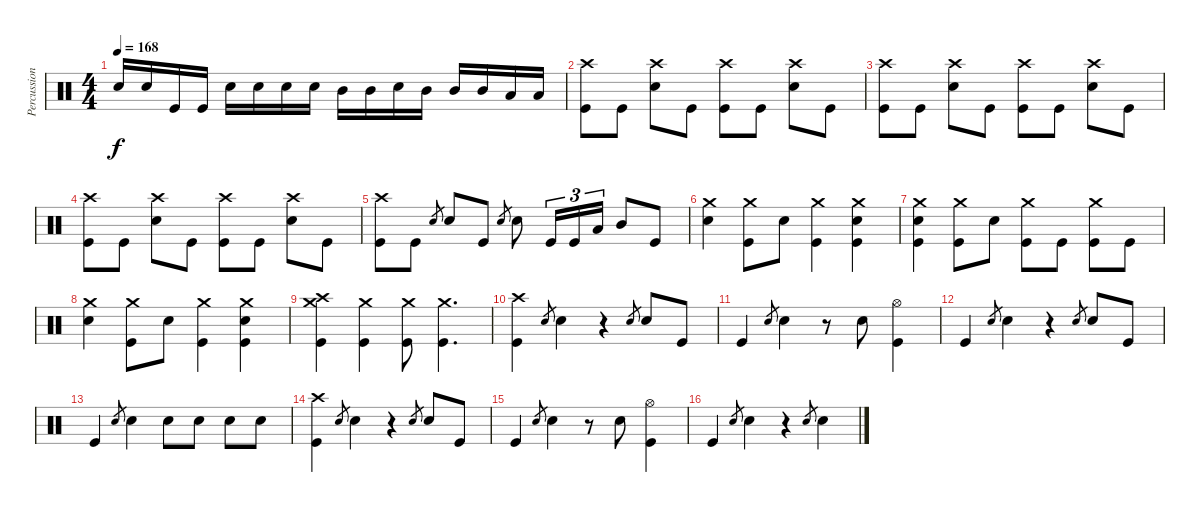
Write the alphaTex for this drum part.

\track ("Percussion" "Percussion") {instrument percussion}
\staff {score}
\articulation defaults
\ts (4 4)
\tempo 168
\clef neutral
\ks c "Electric Snare (hit)".16{dy f} "Electric Snare (hit)".16 "Kick (hit)".16 "Kick (hit)".16 "Electric Snare (hit)".16 "Electric Snare (hit)".16 "Electric Snare (hit)".16 "Electric Snare (hit)".16 "Mid Tom (hit)".16 "Mid Tom (hit)".16 "Electric Snare (hit)".16 "Mid Tom (hit)".16 "Mid Tom (hit)".16 "Mid Tom (hit)".16 "Low Tom (hit)".16 "Low Tom (hit)".16
|
("Crash high (hit)" "Kick (hit)").8 "Kick (hit)".8 ("Crash high (hit)" "Electric Snare (hit)").8 "Kick (hit)".8 ("Crash high (hit)" "Kick (hit)").8 "Kick (hit)".8 ("Crash high (hit)" "Electric Snare (hit)").8 "Kick (hit)".8 |
("Crash high (hit)" "Kick (hit)").8 "Kick (hit)".8 ("Crash high (hit)" "Electric Snare (hit)").8 "Kick (hit)".8 ("Crash high (hit)" "Kick (hit)").8 "Kick (hit)".8 ("Crash high (hit)" "Electric Snare (hit)").8 "Kick (hit)".8 |
("Crash high (hit)" "Kick (hit)").8 "Kick (hit)".8 ("Crash high (hit)" "Electric Snare (hit)").8 "Kick (hit)".8 ("Crash high (hit)" "Kick (hit)").8 "Kick (hit)".8 ("Crash high (hit)" "Electric Snare (hit)").8 "Kick (hit)".8 |
("Crash high (hit)" "Kick (hit)").8 "Kick (hit)".8 "Electric Snare (hit)".8{gr} "Electric Snare (hit)".8 "Kick (hit)".8 "Electric Snare (hit)".8{gr} "Electric Snare (hit)".8 "Kick (hit)".16{tu (3 2)} "Kick (hit)".16{tu (3 2)} "Low Tom (hit)".16{tu (3 2)} "Mid Tom (hit)".8 "Kick (hit)".8 |
("Crash medium (hit)" "Electric Snare (hit)").4 ("Crash medium (hit)" "Kick (hit)").8 "Electric Snare (hit)".8 ("Crash medium (hit)" "Kick (hit)").4 ("Crash medium (hit)" "Electric Snare (hit)" "Kick (hit)").4 |
("Crash medium (hit)" "Electric Snare (hit)" "Kick (hit)").4 ("Crash medium (hit)" "Kick (hit)").8 "Electric Snare (hit)".8 ("Crash medium (hit)" "Kick (hit)").8 "Kick (hit)".8 ("Crash medium (hit)" "Kick (hit)").8 "Kick (hit)".8 |
("Crash medium (hit)" "Electric Snare (hit)").4 ("Crash medium (hit)" "Kick (hit)").8 "Electric Snare (hit)".8 ("Crash medium (hit)" "Kick (hit)").4 ("Crash medium (hit)" "Electric Snare (hit)" "Kick (hit)").4 |
("Crash medium (hit)" "Crash high (hit)" "Kick (hit)").4 ("Crash medium (hit)" "Kick (hit)").4 ("Crash medium (hit)" "Kick (hit)").8 ("Crash medium (hit)" "Kick (hit)").4{d} |
("Crash high (hit)" "Kick (hit)").4 "Electric Snare (hit)".8{gr} "Electric Snare (hit)".4 r.4 "Electric Snare (hit)".8{gr} "Electric Snare (hit)".8 "Kick (hit)".8 |
"Kick (hit)".4 "Electric Snare (hit)".8{gr} "Electric Snare (hit)".4 r.8 "Electric Snare (hit)".8 ("Hi-Hat (open)" "Kick (hit)").4 |
"Kick (hit)".4 "Electric Snare (hit)".8{gr} "Electric Snare (hit)".4 r.4 "Electric Snare (hit)".8{gr} "Electric Snare (hit)".8 "Kick (hit)".8 |
"Kick (hit)".4 "Electric Snare (hit)".8{gr} "Electric Snare (hit)".4 "Electric Snare (hit)".8 "Electric Snare (hit)".8 "Electric Snare (hit)".8 "Electric Snare (hit)".8 |
("Crash high (hit)" "Kick (hit)").4 "Electric Snare (hit)".8{gr} "Electric Snare (hit)".4 r.4 "Electric Snare (hit)".8{gr} "Electric Snare (hit)".8 "Kick (hit)".8 |
"Kick (hit)".4 "Electric Snare (hit)".8{gr} "Electric Snare (hit)".4 r.8 "Electric Snare (hit)".8 ("Hi-Hat (open)" "Kick (hit)").4 |
"Kick (hit)".4 "Electric Snare (hit)".8{gr} "Electric Snare (hit)".4 r.4 "Electric Snare (hit)".8{gr} "Electric Snare (hit)".4
